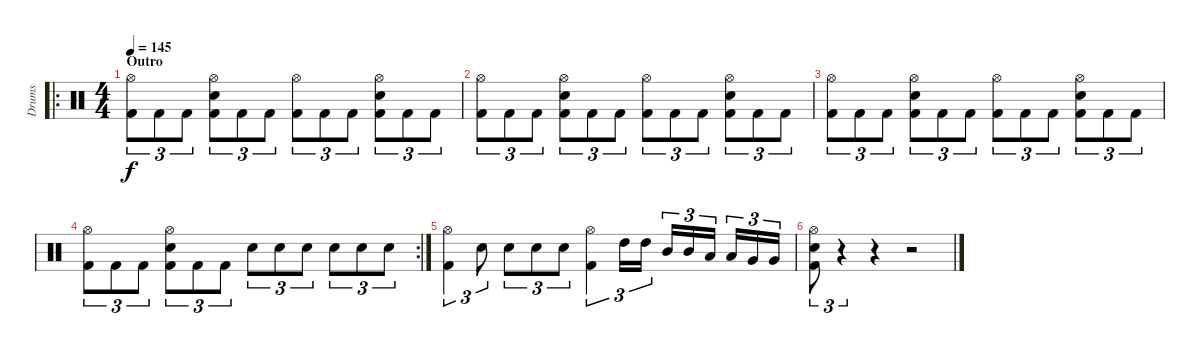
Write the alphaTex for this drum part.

\track ("Drums" "Drums") {instrument percussion}
\staff {score}
\articulation defaults
\ro
\ts (4 4)
\section ("" "Outro")
\tempo 145
\clef neutral
\ks c
("Hi-Hat (open)" "Kick (hit) 2").8{tu (3 2) dy f} "Kick (hit) 2".8{tu (3 2)} "Kick (hit) 2".8{tu (3 2)} ("Hi-Hat (open)" "Electric Snare (hit)" "Kick (hit) 2").8{tu (3 2)} "Kick (hit) 2".8{tu (3 2)} "Kick (hit) 2".8{tu (3 2)} ("Hi-Hat (open)" "Kick (hit) 2").8{tu (3 2)} "Kick (hit) 2".8{tu (3 2)} "Kick (hit) 2".8{tu (3 2)} ("Hi-Hat (open)" "Electric Snare (hit)" "Kick (hit) 2").8{tu (3 2)} "Kick (hit) 2".8{tu (3 2)} "Kick (hit) 2".8{tu (3 2)} |
("Hi-Hat (open)" "Kick (hit) 2").8{tu (3 2)} "Kick (hit) 2".8{tu (3 2)} "Kick (hit) 2".8{tu (3 2)} ("Hi-Hat (open)" "Electric Snare (hit)" "Kick (hit) 2").8{tu (3 2)} "Kick (hit) 2".8{tu (3 2)} "Kick (hit) 2".8{tu (3 2)} ("Hi-Hat (open)" "Kick (hit) 2").8{tu (3 2)} "Kick (hit) 2".8{tu (3 2)} "Kick (hit) 2".8{tu (3 2)} ("Hi-Hat (open)" "Electric Snare (hit)" "Kick (hit) 2").8{tu (3 2)} "Kick (hit) 2".8{tu (3 2)} "Kick (hit) 2".8{tu (3 2)} |
("Hi-Hat (open)" "Kick (hit) 2").8{tu (3 2)} "Kick (hit) 2".8{tu (3 2)} "Kick (hit) 2".8{tu (3 2)} ("Hi-Hat (open)" "Electric Snare (hit)" "Kick (hit) 2").8{tu (3 2)} "Kick (hit) 2".8{tu (3 2)} "Kick (hit) 2".8{tu (3 2)} ("Hi-Hat (open)" "Kick (hit) 2").8{tu (3 2)} "Kick (hit) 2".8{tu (3 2)} "Kick (hit) 2".8{tu (3 2)} ("Hi-Hat (open)" "Electric Snare (hit)" "Kick (hit) 2").8{tu (3 2)} "Kick (hit) 2".8{tu (3 2)} "Kick (hit) 2".8{tu (3 2)} |
\rc 2
("Hi-Hat (open)" "Kick (hit) 2").8{tu (3 2)} "Kick (hit) 2".8{tu (3 2)} "Kick (hit) 2".8{tu (3 2)} ("Hi-Hat (open)" "Electric Snare (hit)" "Kick (hit) 2").8{tu (3 2)} "Kick (hit) 2".8{tu (3 2)} "Kick (hit) 2".8{tu (3 2)} "Electric Snare (hit)".8{tu (3 2)} "Electric Snare (hit)".8{tu (3 2)} "Electric Snare (hit)".8{tu (3 2)} "Electric Snare (hit)".8{tu (3 2)} "Electric Snare (hit)".8{tu (3 2)} "Electric Snare (hit)".8{tu (3 2)} |
("Hi-Hat (open)" "Kick (hit) 2").4{tu (3 2)} "Electric Snare (hit)".8{tu (3 2)} "Electric Snare (hit)".8{tu (3 2)} "Electric Snare (hit)".8{tu (3 2)} "Electric Snare (hit)".8{tu (3 2)} ("Hi-Hat (open)" "Kick (hit) 2").4{tu (3 2)} "High Tom (hit)".16{tu (3 2)} "High Tom (hit)".16{tu (3 2)} "Mid Tom (hit)".16{tu (3 2)} "Mid Tom (hit)".16{tu (3 2)} "Low Tom (hit)".16{tu (3 2)} "Low Tom (hit)".16{tu (3 2)} "Very Low Tom (hit)".16{tu (3 2)} "Very Low Tom (hit)".16{tu (3 2)} |
("Hi-Hat (open)" "Electric Snare (hit)" "Kick (hit) 2").8{tu (3 2)} r.4{tu (3 2)} r.4 r.2
